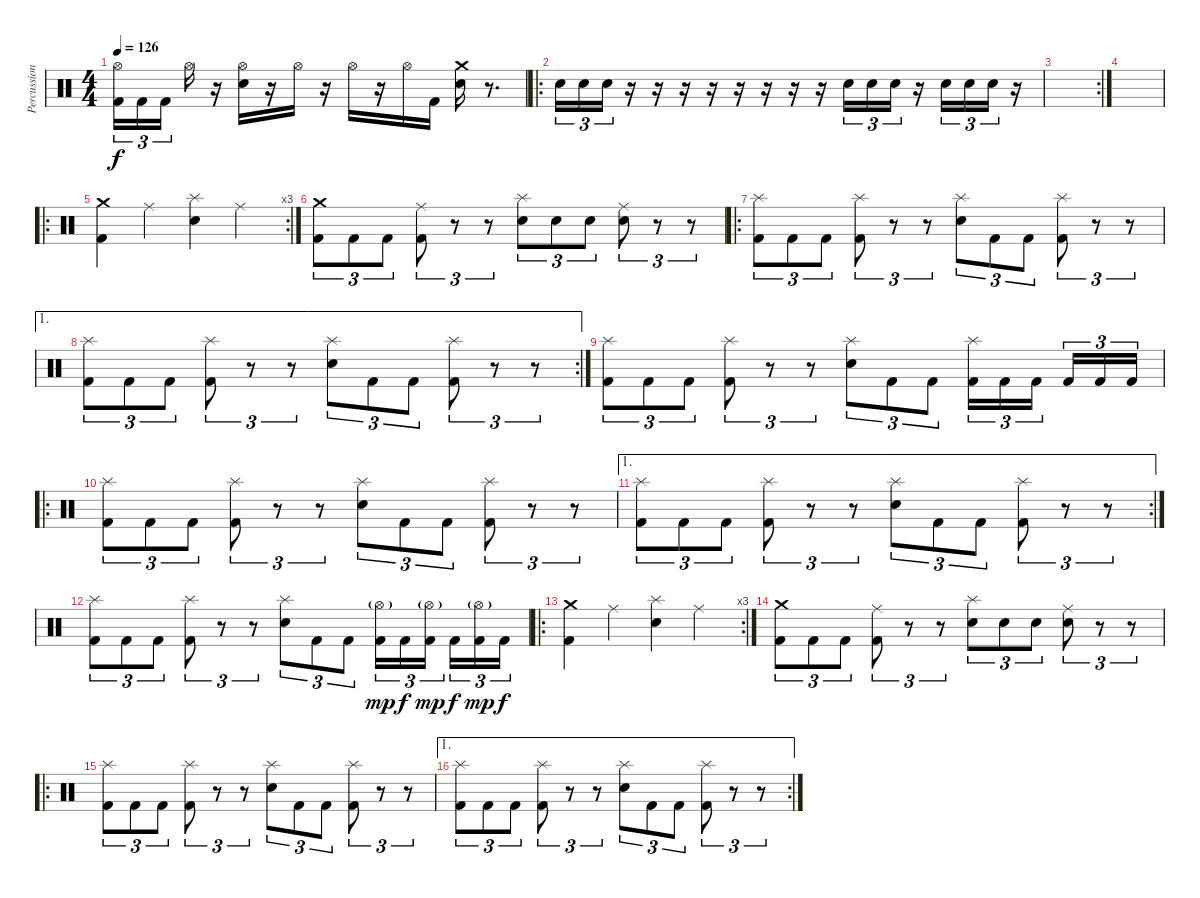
\track ("Percussions" "Percussion") {instrument percussion}
\staff {score}
\articulation defaults
\ts (4 4)
\tempo 126
\clef neutral
\ks c
("Hi-Hat (open)" "Kick (hit) 2").16{tu (3 2) dy f} "Kick (hit) 2".16{tu (3 2)} "Kick (hit) 2".16{tu (3 2)} "Hi-Hat (open)".16 r.16 ("Hi-Hat (open)" "Electric Snare (hit)").16 r.16 "Hi-Hat (open)".16 r.16 "Hi-Hat (open)".16 r.16 "Hi-Hat (open)".16 "Kick (hit) 2".16 ("Crash medium (hit)" "Electric Snare (hit)").16 r.8{d} |
\ro "Electric Snare (hit)".16{tu (3 2)} "Electric Snare (hit)".16{tu (3 2)} "Electric Snare (hit)".16{tu (3 2)}
r.16 r.16 r.16 r.16 r.16 r.16 r.16 r.16 "Electric Snare (hit)".16{tu (3 2)} "Electric Snare (hit)".16{tu (3 2)} "Electric Snare (hit)".16{tu (3 2)} r.16 "Electric Snare (hit)".16{tu (3 2)} "Electric Snare (hit)".16{tu (3 2)} "Electric Snare (hit)".16{tu (3 2)} r.16 |
\rc 2
|
|
\ro
\rc 3
("Crash medium (hit)" "Kick (hit) 2").4 "Ride (middle)".4 ("Splash (hit)" "Electric Snare (hit)").4 "Ride (middle)".4 |
("Crash medium (hit)" "Kick (hit) 2").8{tu (3 2)} "Kick (hit) 2".8{tu (3 2)} "Kick (hit) 2".8{tu (3 2)} ("Ride (middle)" "Kick (hit) 2").8{tu (3 2)} r.8{tu (3 2)} r.8{tu (3 2)} ("Splash (hit)" "Electric Snare (hit)").8{tu (3 2)} "Electric Snare (hit)".8{tu (3 2)} "Electric Snare (hit)".8{tu (3 2)} ("Ride (middle)" "Electric Snare (hit)").8{tu (3 2)} r.8{tu (3 2)} r.8{tu (3 2)} |
\ro
("Splash (hit)" "Kick (hit) 2").8{tu (3 2)} "Kick (hit) 2".8{tu (3 2)} "Kick (hit) 2".8{tu (3 2)} ("Splash (hit)" "Kick (hit) 2").8{tu (3 2)} r.8{tu (3 2)} r.8{tu (3 2)} ("Splash (hit)" "Electric Snare (hit)").8{tu (3 2)} "Kick (hit) 2".8{tu (3 2)} "Kick (hit) 2".8{tu (3 2)} ("Splash (hit)" "Kick (hit) 2").8{tu (3 2)} r.8{tu (3 2)} r.8{tu (3 2)} |
\ae 1
\rc 2
("Splash (hit)" "Kick (hit) 2").8{tu (3 2)} "Kick (hit) 2".8{tu (3 2)} "Kick (hit) 2".8{tu (3 2)} ("Splash (hit)" "Kick (hit) 2").8{tu (3 2)} r.8{tu (3 2)} r.8{tu (3 2)} ("Splash (hit)" "Electric Snare (hit)").8{tu (3 2)} "Kick (hit) 2".8{tu (3 2)} "Kick (hit) 2".8{tu (3 2)} ("Splash (hit)" "Kick (hit) 2").8{tu (3 2)} r.8{tu (3 2)} r.8{tu (3 2)} |
("Splash (hit)" "Kick (hit) 2").8{tu (3 2)} "Kick (hit) 2".8{tu (3 2)} "Kick (hit) 2".8{tu (3 2)} ("Splash (hit)" "Kick (hit) 2").8{tu (3 2)} r.8{tu (3 2)} r.8{tu (3 2)} ("Splash (hit)" "Electric Snare (hit)").8{tu (3 2)} "Kick (hit) 2".8{tu (3 2)} "Kick (hit) 2".8{tu (3 2)} ("Splash (hit)" "Kick (hit) 2").16{tu (3 2)} "Kick (hit) 2".16{tu (3 2)} "Kick (hit) 2".16{tu (3 2)} "Kick (hit) 2".16{tu (3 2)} "Kick (hit) 2".16{tu (3 2)} "Kick (hit) 2".16{tu (3 2)} |
\ro
("Splash (hit)" "Kick (hit) 2").8{tu (3 2)} "Kick (hit) 2".8{tu (3 2)} "Kick (hit) 2".8{tu (3 2)} ("Splash (hit)" "Kick (hit) 2").8{tu (3 2)} r.8{tu (3 2)} r.8{tu (3 2)} ("Splash (hit)" "Electric Snare (hit)").8{tu (3 2)} "Kick (hit) 2".8{tu (3 2)} "Kick (hit) 2".8{tu (3 2)} ("Splash (hit)" "Kick (hit) 2").8{tu (3 2)} r.8{tu (3 2)} r.8{tu (3 2)} |
\ae 1
\rc 2
("Splash (hit)" "Kick (hit) 2").8{tu (3 2)} "Kick (hit) 2".8{tu (3 2)} "Kick (hit) 2".8{tu (3 2)} ("Splash (hit)" "Kick (hit) 2").8{tu (3 2)} r.8{tu (3 2)} r.8{tu (3 2)} ("Splash (hit)" "Electric Snare (hit)").8{tu (3 2)} "Kick (hit) 2".8{tu (3 2)} "Kick (hit) 2".8{tu (3 2)} ("Splash (hit)" "Kick (hit) 2").8{tu (3 2)} r.8{tu (3 2)} r.8{tu (3 2)} |
("Splash (hit)" "Kick (hit) 2").8{tu (3 2)} "Kick (hit) 2".8{tu (3 2)} "Kick (hit) 2".8{tu (3 2)} ("Splash (hit)" "Kick (hit) 2").8{tu (3 2)} r.8{tu (3 2)} r.8{tu (3 2)} ("Splash (hit)" "Electric Snare (hit)").8{tu (3 2)} "Kick (hit) 2".8{tu (3 2)} "Kick (hit) 2".8{tu (3 2)} ("Hi-Hat (open)"{g} "Kick (hit) 2").16{tu (3 2) dy mp} "Kick (hit) 2".16{tu (3 2) dy f} ("Hi-Hat (open)"{g} "Kick (hit) 2").16{tu (3 2) dy mp} "Kick (hit) 2".16{tu (3 2) dy f} ("Hi-Hat (open)"{g} "Kick (hit) 2").16{tu (3 2) dy mp} "Kick (hit) 2".16{tu (3 2) dy f} |
\ro
\rc 3
("Crash medium (hit)" "Kick (hit) 2").4 "Ride (middle)".4 ("Splash (hit)" "Electric Snare (hit)").4 "Ride (middle)".4 |
("Crash medium (hit)" "Kick (hit) 2").8{tu (3 2)} "Kick (hit) 2".8{tu (3 2)} "Kick (hit) 2".8{tu (3 2)} ("Ride (middle)" "Kick (hit) 2").8{tu (3 2)} r.8{tu (3 2)} r.8{tu (3 2)} ("Splash (hit)" "Electric Snare (hit)").8{tu (3 2)} "Electric Snare (hit)".8{tu (3 2)} "Electric Snare (hit)".8{tu (3 2)} ("Ride (middle)" "Electric Snare (hit)").8{tu (3 2)} r.8{tu (3 2)} r.8{tu (3 2)} |
\ro
("Splash (hit)" "Kick (hit) 2").8{tu (3 2)} "Kick (hit) 2".8{tu (3 2)} "Kick (hit) 2".8{tu (3 2)} ("Splash (hit)" "Kick (hit) 2").8{tu (3 2)} r.8{tu (3 2)} r.8{tu (3 2)} ("Splash (hit)" "Electric Snare (hit)").8{tu (3 2)} "Kick (hit) 2".8{tu (3 2)} "Kick (hit) 2".8{tu (3 2)} ("Splash (hit)" "Kick (hit) 2").8{tu (3 2)} r.8{tu (3 2)} r.8{tu (3 2)} |
\ae 1
\rc 2
("Splash (hit)" "Kick (hit) 2").8{tu (3 2)} "Kick (hit) 2".8{tu (3 2)} "Kick (hit) 2".8{tu (3 2)} ("Splash (hit)" "Kick (hit) 2").8{tu (3 2)} r.8{tu (3 2)} r.8{tu (3 2)} ("Splash (hit)" "Electric Snare (hit)").8{tu (3 2)} "Kick (hit) 2".8{tu (3 2)} "Kick (hit) 2".8{tu (3 2)} ("Splash (hit)" "Kick (hit) 2").8{tu (3 2)} r.8{tu (3 2)} r.8{tu (3 2)}
